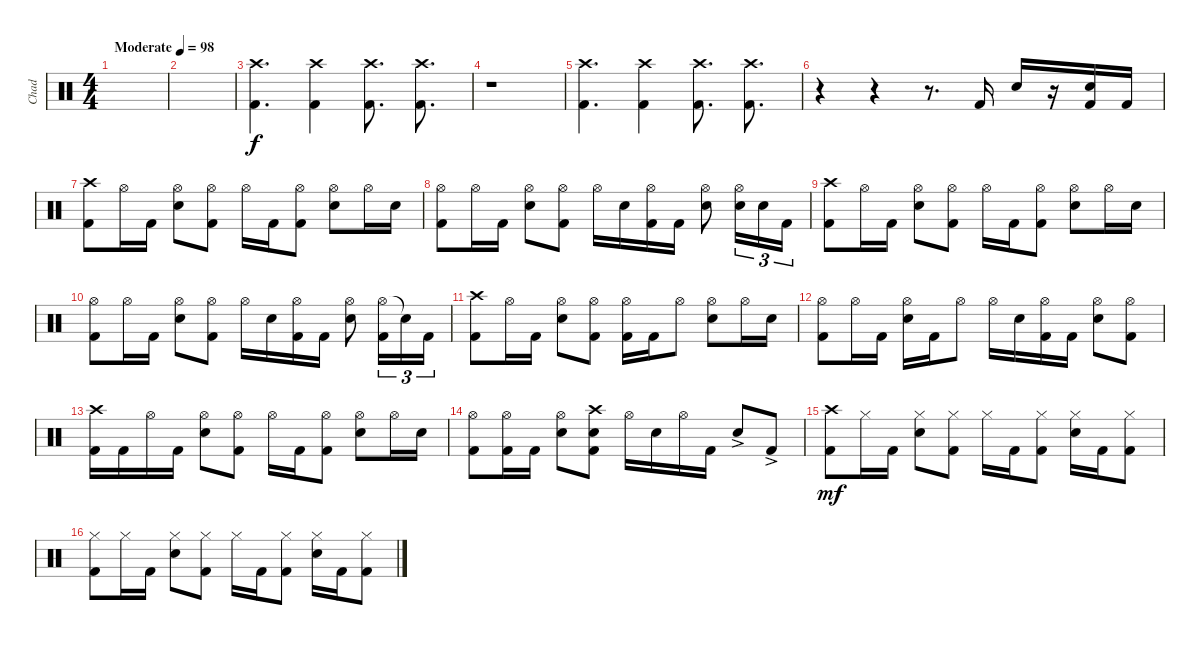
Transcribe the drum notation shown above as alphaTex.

\track ("Chad" "Chad") {instrument percussion}
\staff {score}
\articulation defaults
\ts (4 4)
\tempo (98 "Moderate")
\clef neutral
\ks c
|
|
("Crash high (hit)" "Kick (hit) 2").4{d} ("Crash high (hit)" "Kick (hit) 2").4 ("Crash high (hit)" "Kick (hit) 2").8{d} ("Crash high (hit)" "Kick (hit) 2").8{d} |
r.1 |
("Crash high (hit)" "Kick (hit) 2").4{d} ("Crash high (hit)" "Kick (hit) 2").4 ("Crash high (hit)" "Kick (hit) 2").8{d} ("Crash high (hit)" "Kick (hit) 2").8{d} |
r.4 r.4 r.8{d} "Kick (hit) 2".16 "Snare (hit) 2".16 r.16 ("Snare (hit) 2" "Kick (hit) 2").16 "Kick (hit) 2".16 |
("Crash high (hit)" "Kick (hit) 2").8 "Hi-Hat (open)".16 "Kick (hit) 2".16 ("Hi-Hat (open)" "Snare (hit) 2").8 ("Hi-Hat (open)" "Kick (hit) 2").8 "Hi-Hat (open)".16 "Kick (hit) 2".16 ("Hi-Hat (open)" "Kick (hit) 2").8 ("Hi-Hat (open)" "Snare (hit) 2").8 "Hi-Hat (open)".16 "Snare (hit) 2".16 |
("Hi-Hat (open)" "Kick (hit) 2").8 "Hi-Hat (open)".16 "Kick (hit) 2".16 ("Hi-Hat (open)" "Snare (hit) 2").8 ("Hi-Hat (open)" "Kick (hit) 2").8 "Hi-Hat (open)".16 "Snare (hit) 2".16 ("Hi-Hat (open)" "Kick (hit) 2").16 "Kick (hit) 2".16 ("Hi-Hat (open)" "Snare (hit) 2").8 ("Hi-Hat (open)" "Snare (hit) 2").16{tu (3 2)} "Snare (hit) 2".16{tu (3 2)} "Kick (hit) 2".16{tu (3 2)} |
("Crash high (hit)" "Kick (hit) 2").8 "Hi-Hat (open)".16 "Kick (hit) 2".16 ("Hi-Hat (open)" "Snare (hit) 2").8 ("Hi-Hat (open)" "Kick (hit) 2").8 "Hi-Hat (open)".16 "Kick (hit) 2".16 ("Hi-Hat (open)" "Kick (hit) 2").8 ("Hi-Hat (open)" "Snare (hit) 2").8 "Hi-Hat (open)".16 "Snare (hit) 2".16 |
("Hi-Hat (open)" "Kick (hit) 2").8 "Hi-Hat (open)".16 "Kick (hit) 2".16 ("Hi-Hat (open)" "Snare (hit) 2").8 ("Hi-Hat (open)" "Kick (hit) 2").8 "Hi-Hat (open)".16 "Snare (hit) 2".16 ("Hi-Hat (open)" "Kick (hit) 2").16 "Kick (hit) 2".16 ("Hi-Hat (open)" "Snare (hit) 2").8 ("Hi-Hat (open)" "Kick (hit) 2").16{tu (3 2)} "Snare (hit)"{t}.16{tu (3 2)} "Kick (hit) 2".16{tu (3 2)} |
("Crash high (hit)" "Kick (hit) 2").8 "Hi-Hat (open)".16 "Kick (hit) 2".16 ("Hi-Hat (open)" "Snare (hit) 2").8 ("Hi-Hat (open)" "Kick (hit) 2").8 ("Hi-Hat (open)" "Kick (hit) 2").16 "Kick (hit) 2".16 "Hi-Hat (open)".8 ("Hi-Hat (open)" "Snare (hit) 2").8 "Hi-Hat (open)".16 "Snare (hit) 2".16 |
("Hi-Hat (open)" "Kick (hit) 2").8 "Hi-Hat (open)".16 "Kick (hit) 2".16 ("Hi-Hat (open)" "Snare (hit) 2").16 "Kick (hit) 2".16 "Hi-Hat (open)".8 "Hi-Hat (open)".16 "Snare (hit) 2".16 ("Hi-Hat (open)" "Kick (hit) 2").16 "Kick (hit) 2".16 ("Hi-Hat (open)" "Snare (hit) 2").8 ("Hi-Hat (open)" "Kick (hit) 2").8 |
("Crash high (hit)" "Kick (hit) 2").16 "Kick (hit) 2".16 "Hi-Hat (open)".16 "Kick (hit) 2".16 ("Hi-Hat (open)" "Snare (hit) 2").8 ("Hi-Hat (open)" "Kick (hit) 2").8 "Hi-Hat (open)".16 "Kick (hit) 2".16 ("Hi-Hat (open)" "Kick (hit) 2").8 ("Hi-Hat (open)" "Snare (hit) 2").8 "Hi-Hat (open)".16 "Snare (hit) 2".16 |
("Hi-Hat (open)" "Kick (hit) 2").8 ("Hi-Hat (open)" "Kick (hit) 2").16 "Kick (hit) 2".16 ("Hi-Hat (open)" "Snare (hit) 2").8 ("Crash high (hit)" "Snare (hit) 2" "Kick (hit) 2").8 "Hi-Hat (open)".16 "Snare (hit) 2".16 "Hi-Hat (open)".16 "Kick (hit) 2".16 "Snare (hit) 2"{ac}.8{dy f} "Kick (hit) 2"{ac}.8 |
("Crash high (hit)" "Kick (hit) 2").8{dy mf} "Hi-Hat (closed)".16 "Kick (hit) 2".16 ("Hi-Hat (closed)" "Snare (hit) 2").8 ("Hi-Hat (closed)" "Kick (hit) 2").8 "Hi-Hat (closed)".16 "Kick (hit) 2".16 ("Hi-Hat (closed)" "Kick (hit) 2").8 ("Hi-Hat (closed)" "Snare (hit) 2").16 "Kick (hit) 2".16 ("Hi-Hat (closed)" "Kick (hit) 2").8 |
("Hi-Hat (closed)" "Kick (hit) 2").8 "Hi-Hat (closed)".16 "Kick (hit) 2".16 ("Hi-Hat (closed)" "Snare (hit) 2").8 ("Hi-Hat (closed)" "Kick (hit) 2").8 "Hi-Hat (closed)".16 "Kick (hit) 2".16 ("Hi-Hat (closed)" "Kick (hit) 2").8 ("Hi-Hat (closed)" "Snare (hit) 2").16 "Kick (hit) 2".16 ("Hi-Hat (closed)" "Kick (hit) 2").8
